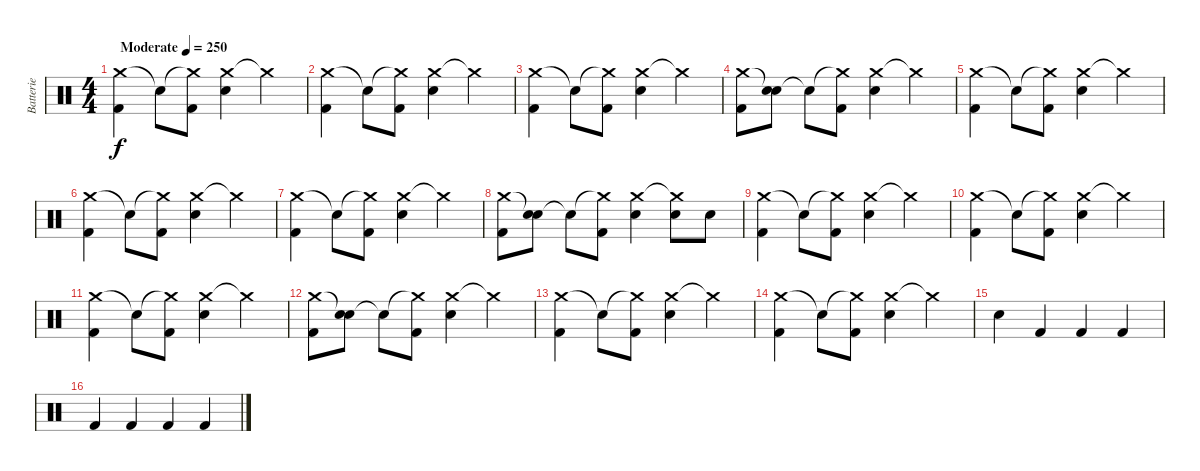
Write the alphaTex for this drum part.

\track ("Batterie" "Batterie") {instrument percussion}
\staff {score}
\articulation defaults
\ts (4 4)
\tempo (250 "Moderate")
\clef neutral
\ks c
("Crash medium (hit)" "Kick (hit) 2").4{dy f} "Snare (hit)"{t}.8 ("Crash medium (hit)"{t} "Kick (hit) 2").8 ("Crash medium (hit)" "Electric Snare (hit)").4 "Crash medium (hit)"{t}.4 |
("Crash medium (hit)" "Kick (hit) 2").4 "Snare (hit)"{t}.8 ("Crash medium (hit)"{t} "Kick (hit) 2").8 ("Crash medium (hit)" "Electric Snare (hit)").4 "Crash medium (hit)"{t}.4 |
("Crash medium (hit)" "Kick (hit) 2").4 "Snare (hit)"{t}.8 ("Crash medium (hit)"{t} "Kick (hit) 2").8 ("Crash medium (hit)" "Electric Snare (hit)").4 "Crash medium (hit)"{t}.4 |
("Crash medium (hit)" "Kick (hit) 2").8 ("Snare (hit)"{t} "Electric Snare (hit)").8 "Snare (hit)"{t}.8 ("Crash medium (hit)"{t} "Kick (hit) 2").8 ("Crash medium (hit)" "Electric Snare (hit)").4 "Crash medium (hit)"{t}.4 |
("Crash medium (hit)" "Kick (hit) 2").4 "Snare (hit)"{t}.8 ("Crash medium (hit)"{t} "Kick (hit) 2").8 ("Crash medium (hit)" "Electric Snare (hit)").4 "Crash medium (hit)"{t}.4 |
("Crash medium (hit)" "Kick (hit) 2").4 "Snare (hit)"{t}.8 ("Crash medium (hit)"{t} "Kick (hit) 2").8 ("Crash medium (hit)" "Electric Snare (hit)").4 "Crash medium (hit)"{t}.4 |
("Crash medium (hit)" "Kick (hit) 2").4 "Snare (hit)"{t}.8 ("Crash medium (hit)"{t} "Kick (hit) 2").8 ("Crash medium (hit)" "Electric Snare (hit)").4 "Crash medium (hit)"{t}.4 |
("Crash medium (hit)" "Kick (hit) 2").8 ("Snare (hit)"{t} "Electric Snare (hit)").8 "Snare (hit)"{t}.8 ("Crash medium (hit)"{t} "Kick (hit) 2").8 ("Crash medium (hit)" "Electric Snare (hit)").4 ("Crash medium (hit)"{t} "Electric Snare (hit)").8 "Electric Snare (hit)".8 |
("Crash medium (hit)" "Kick (hit) 2").4 "Snare (hit)"{t}.8 ("Crash medium (hit)"{t} "Kick (hit) 2").8 ("Crash medium (hit)" "Electric Snare (hit)").4 "Crash medium (hit)"{t}.4 |
("Crash medium (hit)" "Kick (hit) 2").4 "Snare (hit)"{t}.8 ("Crash medium (hit)"{t} "Kick (hit) 2").8 ("Crash medium (hit)" "Electric Snare (hit)").4 "Crash medium (hit)"{t}.4 |
("Crash medium (hit)" "Kick (hit) 2").4 "Snare (hit)"{t}.8 ("Crash medium (hit)"{t} "Kick (hit) 2").8 ("Crash medium (hit)" "Electric Snare (hit)").4 "Crash medium (hit)"{t}.4 |
("Crash medium (hit)" "Kick (hit) 2").8 ("Snare (hit)"{t} "Electric Snare (hit)").8 "Snare (hit)"{t}.8 ("Crash medium (hit)"{t} "Kick (hit) 2").8 ("Crash medium (hit)" "Electric Snare (hit)").4 "Crash medium (hit)"{t}.4 |
("Crash medium (hit)" "Kick (hit) 2").4 "Snare (hit)"{t}.8 ("Crash medium (hit)"{t} "Kick (hit) 2").8 ("Crash medium (hit)" "Electric Snare (hit)").4 "Crash medium (hit)"{t}.4 |
("Crash medium (hit)" "Kick (hit) 2").4 "Snare (hit)"{t}.8 ("Crash medium (hit)"{t} "Kick (hit) 2").8 ("Crash medium (hit)" "Electric Snare (hit)").4 "Crash medium (hit)"{t}.4 |
"Electric Snare (hit)".4 "Kick (hit) 2".4 "Kick (hit) 2".4 "Kick (hit) 2".4 |
"Kick (hit) 2".4 "Kick (hit) 2".4 "Kick (hit) 2".4 "Kick (hit) 2".4
